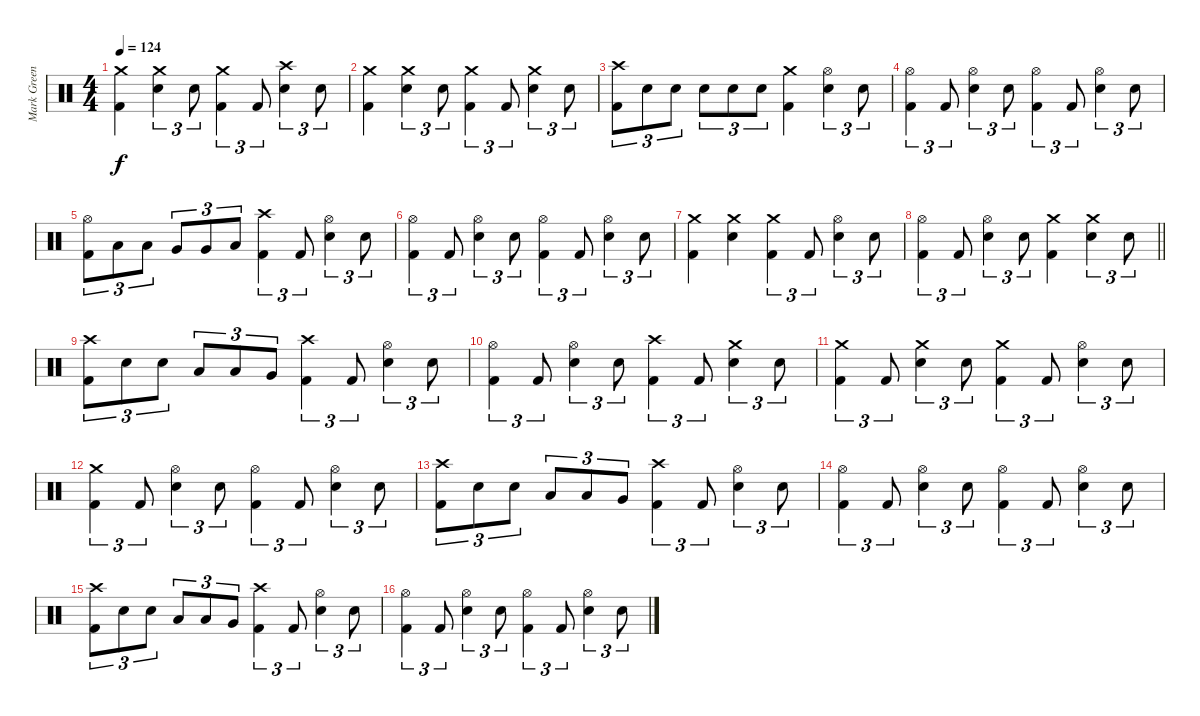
\track ("Mark Greening" "Mark Green") {instrument percussion}
\staff {score}
\articulation defaults
\ts (4 4)
\section ("" "")
\tempo 124
\clef neutral
\ks c
("Crash medium (hit)" "Kick (hit) 2").4{dy f} ("Crash medium (hit)" "Electric Snare (hit)").4{tu (3 2)} "Electric Snare (hit)".8{tu (3 2)} ("Crash medium (hit)" "Kick (hit) 2").4{tu (3 2)} "Kick (hit) 2".8{tu (3 2)} ("Crash high (hit)" "Electric Snare (hit)").4{tu (3 2)} "Electric Snare (hit)".8{tu (3 2)} |
("Crash medium (hit)" "Kick (hit) 2").4 ("Crash medium (hit)" "Electric Snare (hit)").4{tu (3 2)} "Electric Snare (hit)".8{tu (3 2)} ("Crash medium (hit)" "Kick (hit) 2").4{tu (3 2)} "Kick (hit) 2".8{tu (3 2)} ("Crash medium (hit)" "Electric Snare (hit)").4{tu (3 2)} "Electric Snare (hit)".8{tu (3 2)} |
("Crash high (hit)" "Kick (hit) 2").8{tu (3 2)} "Electric Snare (hit)".8{tu (3 2)} "Electric Snare (hit)".8{tu (3 2)} "Electric Snare (hit)".8{tu (3 2)} "Electric Snare (hit)".8{tu (3 2)} "Electric Snare (hit)".8{tu (3 2)} ("Crash medium (hit)" "Kick (hit) 2").4 ("Hi-Hat (open)" "Electric Snare (hit)").4{tu (3 2)} "Electric Snare (hit)".8{tu (3 2)} |
("Hi-Hat (open)" "Kick (hit) 2").4{tu (3 2)} "Kick (hit) 2".8{tu (3 2)} ("Hi-Hat (open)" "Electric Snare (hit)").4{tu (3 2)} "Electric Snare (hit)".8{tu (3 2)} ("Hi-Hat (open)" "Kick (hit) 2").4{tu (3 2)} "Kick (hit) 2".8{tu (3 2)} ("Hi-Hat (open)" "Electric Snare (hit)").4{tu (3 2)} "Electric Snare (hit)".8{tu (3 2)} |
("Hi-Hat (open)" "Kick (hit) 2").8{tu (3 2)} "Low Tom (hit)".8{tu (3 2)} "Low Tom (hit)".8{tu (3 2)} "Very Low Tom (hit)".8{tu (3 2)} "Very Low Tom (hit)".8{tu (3 2)} "Low Floor Tom (hit)".8{tu (3 2)} ("Crash high (hit)" "Kick (hit) 2").4{tu (3 2)} "Kick (hit) 2".8{tu (3 2)} ("Hi-Hat (open)" "Electric Snare (hit)").4{tu (3 2)} "Electric Snare (hit)".8{tu (3 2)} |
("Hi-Hat (open)" "Kick (hit) 2").4{tu (3 2)} "Kick (hit) 2".8{tu (3 2)} ("Hi-Hat (open)" "Electric Snare (hit)").4{tu (3 2)} "Electric Snare (hit)".8{tu (3 2)} ("Hi-Hat (open)" "Kick (hit) 2").4{tu (3 2)} "Kick (hit) 2".8{tu (3 2)} ("Hi-Hat (open)" "Electric Snare (hit)").4{tu (3 2)} "Electric Snare (hit)".8{tu (3 2)} |
("Crash medium (hit)" "Kick (hit) 2").4 ("Crash medium (hit)" "Electric Snare (hit)").4 ("Crash medium (hit)" "Kick (hit) 2").4{tu (3 2)} "Kick (hit) 2".8{tu (3 2)} ("Hi-Hat (open)" "Electric Snare (hit)").4{tu (3 2)} "Electric Snare (hit)".8{tu (3 2)} |
\barLineRight lightlight
("Hi-Hat (open)" "Kick (hit) 2").4{tu (3 2)} "Kick (hit) 2".8{tu (3 2)} ("Hi-Hat (open)" "Electric Snare (hit)").4{tu (3 2)} "Electric Snare (hit)".8{tu (3 2)} ("Crash medium (hit)" "Kick (hit) 2").4 ("Crash medium (hit)" "Electric Snare (hit)").4{tu (3 2)} "Electric Snare (hit)".8{tu (3 2)} |
\section ("" "")
("Crash high (hit)" "Kick (hit) 2").8{tu (3 2)} "Electric Snare (hit)".8{tu (3 2)} "Electric Snare (hit)".8{tu (3 2)} "Low Tom (hit)".8{tu (3 2)} "Low Tom (hit)".8{tu (3 2)} "Very Low Tom (hit)".8{tu (3 2)} ("Crash high (hit)" "Kick (hit) 2").4{tu (3 2)} "Kick (hit) 2".8{tu (3 2)} ("Hi-Hat (open)" "Electric Snare (hit)").4{tu (3 2)} "Electric Snare (hit)".8{tu (3 2)} |
("Hi-Hat (open)" "Kick (hit) 2").4{tu (3 2)} "Kick (hit) 2".8{tu (3 2)} ("Hi-Hat (open)" "Electric Snare (hit)").4{tu (3 2)} "Electric Snare (hit)".8{tu (3 2)} ("Crash high (hit)" "Kick (hit) 2").4{tu (3 2)} "Kick (hit) 2".8{tu (3 2)} ("Crash medium (hit)" "Electric Snare (hit)").4{tu (3 2)} "Electric Snare (hit)".8{tu (3 2)} |
("Crash medium (hit)" "Kick (hit) 2").4{tu (3 2)} "Kick (hit) 2".8{tu (3 2)} ("Crash medium (hit)" "Electric Snare (hit)").4{tu (3 2)} "Electric Snare (hit)".8{tu (3 2)} ("Crash medium (hit)" "Kick (hit) 2").4{tu (3 2)} "Kick (hit) 2".8{tu (3 2)} ("Hi-Hat (open)" "Electric Snare (hit)").4{tu (3 2)} "Electric Snare (hit)".8{tu (3 2)} |
("Crash medium (hit)" "Kick (hit) 2").4{tu (3 2)} "Kick (hit) 2".8{tu (3 2)} ("Hi-Hat (open)" "Electric Snare (hit)").4{tu (3 2)} "Electric Snare (hit)".8{tu (3 2)} ("Hi-Hat (open)" "Kick (hit) 2").4{tu (3 2)} "Kick (hit) 2".8{tu (3 2)} ("Hi-Hat (open)" "Electric Snare (hit)").4{tu (3 2)} "Electric Snare (hit)".8{tu (3 2)} |
("Crash high (hit)" "Kick (hit) 2").8{tu (3 2)} "Electric Snare (hit)".8{tu (3 2)} "Electric Snare (hit)".8{tu (3 2)} "Low Tom (hit)".8{tu (3 2)} "Low Tom (hit)".8{tu (3 2)} "Very Low Tom (hit)".8{tu (3 2)} ("Crash high (hit)" "Kick (hit) 2").4{tu (3 2)} "Kick (hit) 2".8{tu (3 2)} ("Hi-Hat (open)" "Electric Snare (hit)").4{tu (3 2)} "Electric Snare (hit)".8{tu (3 2)} |
("Hi-Hat (open)" "Kick (hit) 2").4{tu (3 2)} "Kick (hit) 2".8{tu (3 2)} ("Hi-Hat (open)" "Electric Snare (hit)").4{tu (3 2)} "Electric Snare (hit)".8{tu (3 2)} ("Hi-Hat (open)" "Kick (hit) 2").4{tu (3 2)} "Kick (hit) 2".8{tu (3 2)} ("Hi-Hat (open)" "Electric Snare (hit)").4{tu (3 2)} "Electric Snare (hit)".8{tu (3 2)} |
("Crash high (hit)" "Kick (hit) 2").8{tu (3 2)} "Electric Snare (hit)".8{tu (3 2)} "Electric Snare (hit)".8{tu (3 2)} "Low Tom (hit)".8{tu (3 2)} "Low Tom (hit)".8{tu (3 2)} "Very Low Tom (hit)".8{tu (3 2)} ("Crash high (hit)" "Kick (hit) 2").4{tu (3 2)} "Kick (hit) 2".8{tu (3 2)} ("Hi-Hat (open)" "Electric Snare (hit)").4{tu (3 2)} "Electric Snare (hit)".8{tu (3 2)} |
("Hi-Hat (open)" "Kick (hit) 2").4{tu (3 2)} "Kick (hit) 2".8{tu (3 2)} ("Hi-Hat (open)" "Electric Snare (hit)").4{tu (3 2)} "Electric Snare (hit)".8{tu (3 2)} ("Hi-Hat (open)" "Kick (hit) 2").4{tu (3 2)} "Kick (hit) 2".8{tu (3 2)} ("Hi-Hat (open)" "Electric Snare (hit)").4{tu (3 2)} "Electric Snare (hit)".8{tu (3 2)}
